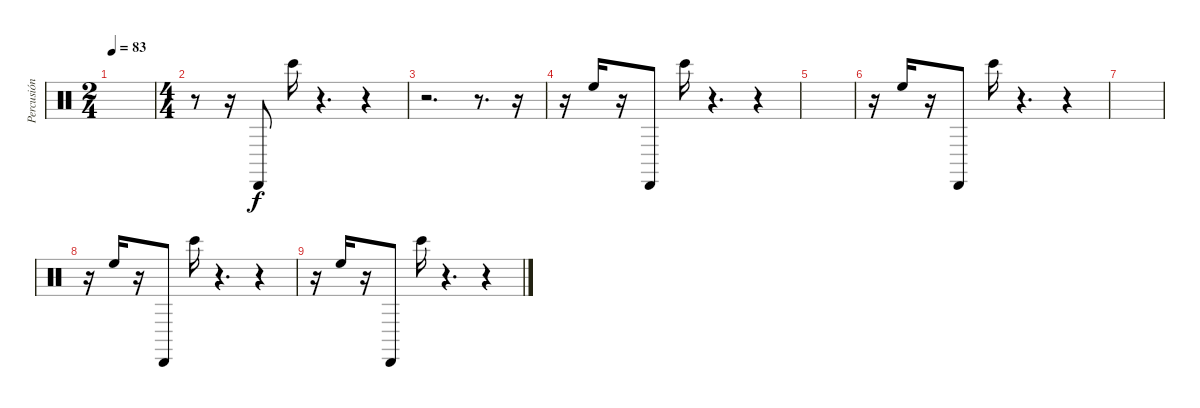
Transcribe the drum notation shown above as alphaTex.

\track ("Percusión" "Percusión") {instrument percussion}
\staff {score}
\articulation defaults
\ts (2 4)
\tempo 83
\clef neutral
\ks c
|
\ts (4 4)
r.8 r.16 "Cabasa (hit)".8 "Bongo High (hit)".16{dy f balance 16} r.4{d balance 8} r.4 |
r.2{d} r.8{d} r.16 |
r.16 "High Floor Tom (hit)".16 r.16 "Cabasa (hit)".8 "Bongo High (hit)".16{balance 16} r.4{d balance 8} r.4 |
|
r.16 "High Floor Tom (hit)".16 r.16 "Cabasa (hit)".8 "Bongo High (hit)".16{balance 16} r.4{d balance 8} r.4 |
|
r.16 "High Floor Tom (hit)".16 r.16 "Cabasa (hit)".8 "Bongo High (hit)".16{balance 16} r.4{d balance 8} r.4 |
r.16 "High Floor Tom (hit)".16 r.16 "Cabasa (hit)".8 "Bongo High (hit)".16{balance 16} r.4{d balance 8} r.4
